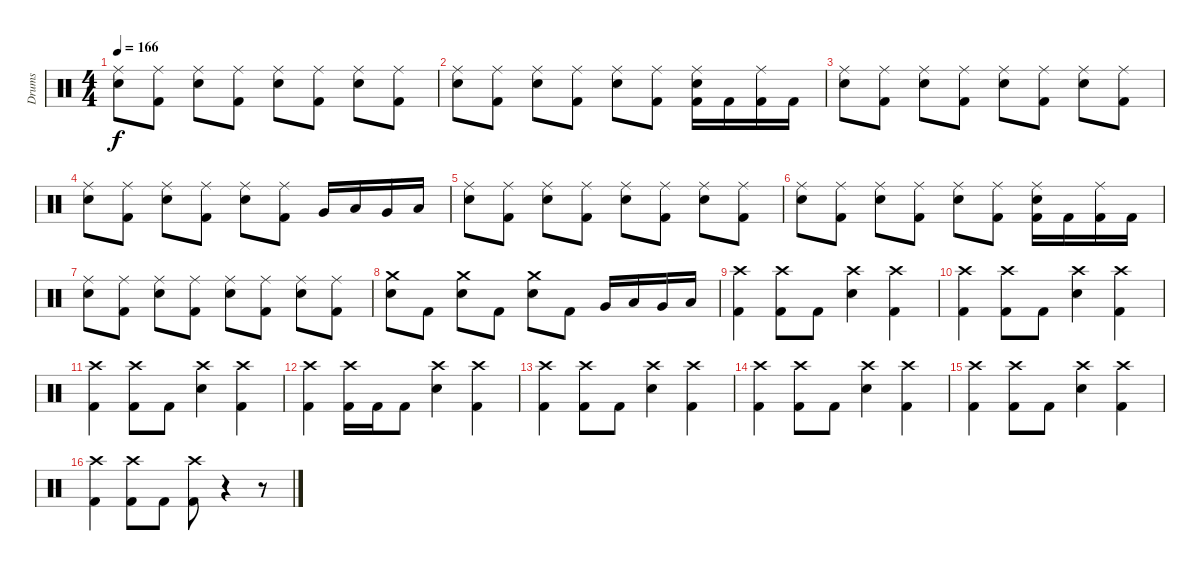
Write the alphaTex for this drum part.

\track ("Drums" "Drums") {instrument percussion}
\staff {score}
\articulation defaults
\ts (4 4)
\tempo 166
\clef neutral
\ks c
("Ride (middle)" "Snare (hit) 2").8{dy f} ("Ride (middle)" "Kick (hit) 2").8 ("Ride (middle)" "Snare (hit) 2").8 ("Ride (middle)" "Kick (hit) 2").8 ("Ride (middle)" "Snare (hit) 2").8 ("Ride (middle)" "Kick (hit) 2").8 ("Ride (middle)" "Snare (hit) 2").8 ("Ride (middle)" "Kick (hit) 2").8 |
("Ride (middle)" "Snare (hit) 2").8 ("Ride (middle)" "Kick (hit) 2").8 ("Ride (middle)" "Snare (hit) 2").8 ("Ride (middle)" "Kick (hit) 2").8 ("Ride (middle)" "Snare (hit) 2").8 ("Ride (middle)" "Kick (hit) 2").8 ("Ride (middle)" "Snare (hit) 2" "Kick (hit) 2").16 "Kick (hit) 2".16 ("Ride (middle)" "Kick (hit) 2").16 "Kick (hit) 2".16 |
("Ride (middle)" "Snare (hit) 2").8 ("Ride (middle)" "Kick (hit) 2").8 ("Ride (middle)" "Snare (hit) 2").8 ("Ride (middle)" "Kick (hit) 2").8 ("Ride (middle)" "Snare (hit) 2").8 ("Ride (middle)" "Kick (hit) 2").8 ("Ride (middle)" "Snare (hit) 2").8 ("Ride (middle)" "Kick (hit) 2").8 |
("Ride (middle)" "Snare (hit) 2").8 ("Ride (middle)" "Kick (hit) 2").8 ("Ride (middle)" "Snare (hit) 2").8 ("Ride (middle)" "Kick (hit) 2").8 ("Ride (middle)" "Snare (hit) 2").8 ("Ride (middle)" "Kick (hit) 2").8 "Very Low Tom (hit)".16 "Low Tom (hit)".16 "Very Low Tom (hit)".16 "Low Tom (hit)".16 |
("Ride (middle)" "Snare (hit) 2").8 ("Ride (middle)" "Kick (hit) 2").8 ("Ride (middle)" "Snare (hit) 2").8 ("Ride (middle)" "Kick (hit) 2").8 ("Ride (middle)" "Snare (hit) 2").8 ("Ride (middle)" "Kick (hit) 2").8 ("Ride (middle)" "Snare (hit) 2").8 ("Ride (middle)" "Kick (hit) 2").8 |
("Ride (middle)" "Snare (hit) 2").8 ("Ride (middle)" "Kick (hit) 2").8 ("Ride (middle)" "Snare (hit) 2").8 ("Ride (middle)" "Kick (hit) 2").8 ("Ride (middle)" "Snare (hit) 2").8 ("Ride (middle)" "Kick (hit) 2").8 ("Ride (middle)" "Snare (hit) 2" "Kick (hit) 2").16 "Kick (hit) 2".16 ("Ride (middle)" "Kick (hit) 2").16 "Kick (hit) 2".16 |
("Ride (middle)" "Snare (hit) 2").8 ("Ride (middle)" "Kick (hit) 2").8 ("Ride (middle)" "Snare (hit) 2").8 ("Ride (middle)" "Kick (hit) 2").8 ("Ride (middle)" "Snare (hit) 2").8 ("Ride (middle)" "Kick (hit) 2").8 ("Ride (middle)" "Snare (hit) 2").8 ("Ride (middle)" "Kick (hit) 2").8 |
("Crash medium (hit)" "Snare (hit) 2").8 "Kick (hit) 2".8 ("Crash medium (hit)" "Snare (hit) 2").8 "Kick (hit) 2".8 ("Crash medium (hit)" "Snare (hit) 2").8 "Kick (hit) 2".8 "Very Low Tom (hit)".16 "Low Tom (hit)".16 "Very Low Tom (hit)".16 "Low Tom (hit)".16 |
("Crash high (hit)" "Kick (hit) 2").4 ("Crash high (hit)" "Kick (hit) 2").8 "Kick (hit) 2".8 ("Crash high (hit)" "Snare (hit) 2").4 ("Crash high (hit)" "Kick (hit) 2").4 |
("Crash high (hit)" "Kick (hit) 2").4 ("Crash high (hit)" "Kick (hit) 2").8 "Kick (hit) 2".8 ("Crash high (hit)" "Snare (hit) 2").4 ("Crash high (hit)" "Kick (hit) 2").4 |
("Crash high (hit)" "Kick (hit) 2").4 ("Crash high (hit)" "Kick (hit) 2").8 "Kick (hit) 2".8 ("Crash high (hit)" "Snare (hit) 2").4 ("Crash high (hit)" "Kick (hit) 2").4 |
("Crash high (hit)" "Kick (hit) 2").4 ("Crash high (hit)" "Kick (hit) 2").16 "Kick (hit) 2".16 "Kick (hit) 2".8 ("Crash high (hit)" "Snare (hit) 2").4 ("Crash high (hit)" "Kick (hit) 2").4 |
("Crash high (hit)" "Kick (hit) 2").4 ("Crash high (hit)" "Kick (hit) 2").8 "Kick (hit) 2".8 ("Crash high (hit)" "Snare (hit) 2").4 ("Crash high (hit)" "Kick (hit) 2").4 |
("Crash high (hit)" "Kick (hit) 2").4 ("Crash high (hit)" "Kick (hit) 2").8 "Kick (hit) 2".8 ("Crash high (hit)" "Snare (hit) 2").4 ("Crash high (hit)" "Kick (hit) 2").4 |
("Crash high (hit)" "Kick (hit) 2").4 ("Crash high (hit)" "Kick (hit) 2").8 "Kick (hit) 2".8 ("Crash high (hit)" "Snare (hit) 2").4 ("Crash high (hit)" "Kick (hit) 2").4 |
("Crash high (hit)" "Kick (hit) 2").4 ("Crash high (hit)" "Kick (hit) 2").8 "Kick (hit) 2".8 ("Crash high (hit)" "Kick (hit) 2").8 r.4 r.8
